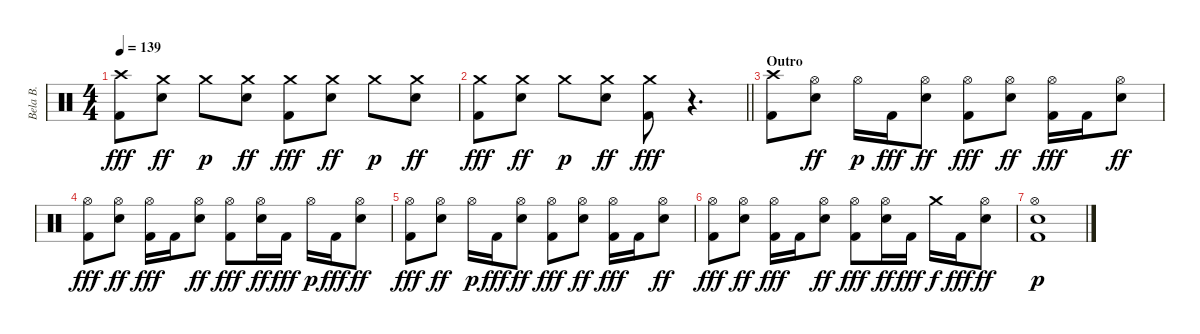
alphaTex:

\track ("Bela B." "Bela B.") {instrument percussion}
\staff {score}
\articulation defaults
\ts (4 4)
\tempo 139
\clef neutral
\ks c
("Crash high (hit)" "Kick (hit) 2").8{dy fff} ("Crash medium (hit)" "Electric Snare (hit)").8{dy ff} "Crash medium (hit)".8{dy p} ("Crash medium (hit)" "Electric Snare (hit)").8{dy ff} ("Crash medium (hit)" "Kick (hit) 2").8{dy fff} ("Crash medium (hit)" "Electric Snare (hit)").8{dy ff} "Crash medium (hit)".8{dy p} ("Crash medium (hit)" "Electric Snare (hit)").8{dy ff} |
\barLineRight lightlight
("Crash medium (hit)" "Kick (hit) 2").8{dy fff} ("Crash medium (hit)" "Electric Snare (hit)").8{dy ff} "Crash medium (hit)".8{dy p} ("Crash medium (hit)" "Electric Snare (hit)").8{dy ff} ("Crash medium (hit)" "Kick (hit) 2").8{dy fff} r.4{d} |
\section ("" "Outro")
("Crash high (hit)" "Kick (hit) 2").8 ("Hi-Hat (open)" "Electric Snare (hit)").8{dy ff} "Hi-Hat (open)".16{dy p} "Kick (hit) 2".16{dy fff} ("Hi-Hat (open)" "Electric Snare (hit)").8{dy ff} ("Hi-Hat (open)" "Kick (hit) 2").8{dy fff} ("Hi-Hat (open)" "Electric Snare (hit)").8{dy ff} ("Hi-Hat (open)" "Kick (hit) 2").16{dy fff} "Kick (hit) 2".16 ("Hi-Hat (open)" "Electric Snare (hit)").8{dy ff} |
("Hi-Hat (open)" "Kick (hit) 2").8{dy fff} ("Hi-Hat (open)" "Electric Snare (hit)").8{dy ff} ("Hi-Hat (open)" "Kick (hit) 2").16{dy fff} "Kick (hit) 2".16 ("Hi-Hat (open)" "Electric Snare (hit)").8{dy ff} ("Hi-Hat (open)" "Kick (hit) 2").8{dy fff} ("Hi-Hat (open)" "Electric Snare (hit)").16{dy ff} "Kick (hit) 2".16{dy fff} "Hi-Hat (open)".16{dy p} "Kick (hit) 2".16{dy fff} ("Hi-Hat (open)" "Electric Snare (hit)").8{dy ff} |
("Hi-Hat (open)" "Kick (hit) 2").8{dy fff} ("Hi-Hat (open)" "Electric Snare (hit)").8{dy ff} "Hi-Hat (open)".16{dy p} "Kick (hit) 2".16{dy fff} ("Hi-Hat (open)" "Electric Snare (hit)").8{dy ff} ("Hi-Hat (open)" "Kick (hit) 2").8{dy fff} ("Hi-Hat (open)" "Electric Snare (hit)").8{dy ff} ("Hi-Hat (open)" "Kick (hit) 2").16{dy fff} "Kick (hit) 2".16 ("Hi-Hat (open)" "Electric Snare (hit)").8{dy ff} |
("Hi-Hat (open)" "Kick (hit) 2").8{dy fff} ("Hi-Hat (open)" "Electric Snare (hit)").8{dy ff} ("Hi-Hat (open)" "Kick (hit) 2").16{dy fff} "Kick (hit) 2".16 ("Hi-Hat (open)" "Electric Snare (hit)").8{dy ff} ("Hi-Hat (open)" "Kick (hit) 2").8{dy fff} ("Hi-Hat (open)" "Electric Snare (hit)").16{dy ff} "Kick (hit) 2".16{dy fff} "Crash medium (hit)".16{dy f} "Kick (hit) 2".16{dy fff} ("Hi-Hat (open)" "Electric Snare (hit)").8{dy ff} |
("Hi-Hat (open)" "Electric Snare (hit)" "Kick (hit) 2").1{dy p}
